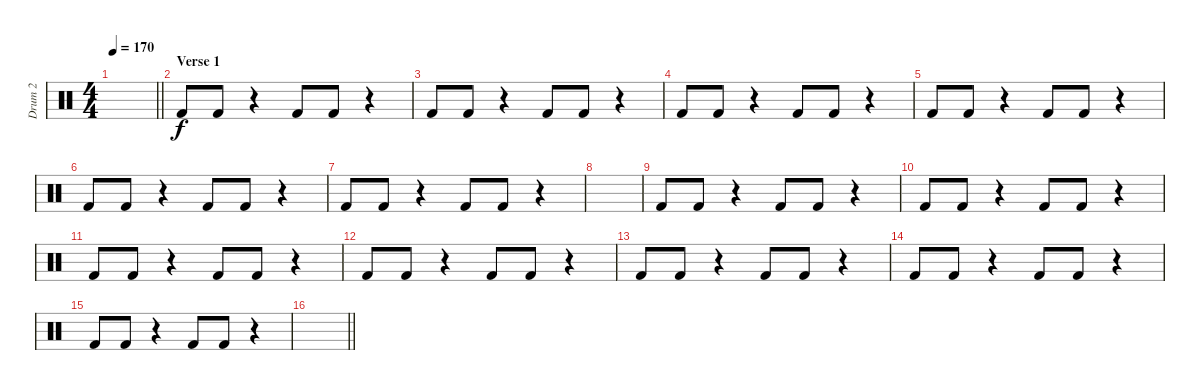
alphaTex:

\track ("Drum 2" "Drum 2") {instrument percussion}
\staff {score}
\articulation defaults
\ts (4 4)
\tempo 170
\clef neutral
\barLineRight lightlight
\ks c
|
\section ("" "Verse 1")
"Kick (hit) 2".8{dy f} "Kick (hit) 2".8 r.4 "Kick (hit) 2".8 "Kick (hit) 2".8 r.4 |
"Kick (hit) 2".8 "Kick (hit) 2".8 r.4 "Kick (hit) 2".8 "Kick (hit) 2".8 r.4 |
"Kick (hit) 2".8 "Kick (hit) 2".8 r.4 "Kick (hit) 2".8 "Kick (hit) 2".8 r.4 |
"Kick (hit) 2".8 "Kick (hit) 2".8 r.4 "Kick (hit) 2".8 "Kick (hit) 2".8 r.4 |
"Kick (hit) 2".8 "Kick (hit) 2".8 r.4 "Kick (hit) 2".8 "Kick (hit) 2".8 r.4 |
"Kick (hit) 2".8 "Kick (hit) 2".8 r.4 "Kick (hit) 2".8 "Kick (hit) 2".8 r.4 |
|
"Kick (hit) 2".8 "Kick (hit) 2".8 r.4 "Kick (hit) 2".8 "Kick (hit) 2".8 r.4 |
"Kick (hit) 2".8 "Kick (hit) 2".8 r.4 "Kick (hit) 2".8 "Kick (hit) 2".8 r.4 |
"Kick (hit) 2".8 "Kick (hit) 2".8 r.4 "Kick (hit) 2".8 "Kick (hit) 2".8 r.4 |
"Kick (hit) 2".8 "Kick (hit) 2".8 r.4 "Kick (hit) 2".8 "Kick (hit) 2".8 r.4 |
"Kick (hit) 2".8 "Kick (hit) 2".8 r.4 "Kick (hit) 2".8 "Kick (hit) 2".8 r.4 |
"Kick (hit) 2".8 "Kick (hit) 2".8 r.4 "Kick (hit) 2".8 "Kick (hit) 2".8 r.4 |
"Kick (hit) 2".8 "Kick (hit) 2".8 r.4 "Kick (hit) 2".8 "Kick (hit) 2".8 r.4 |
\barLineRight lightlight
